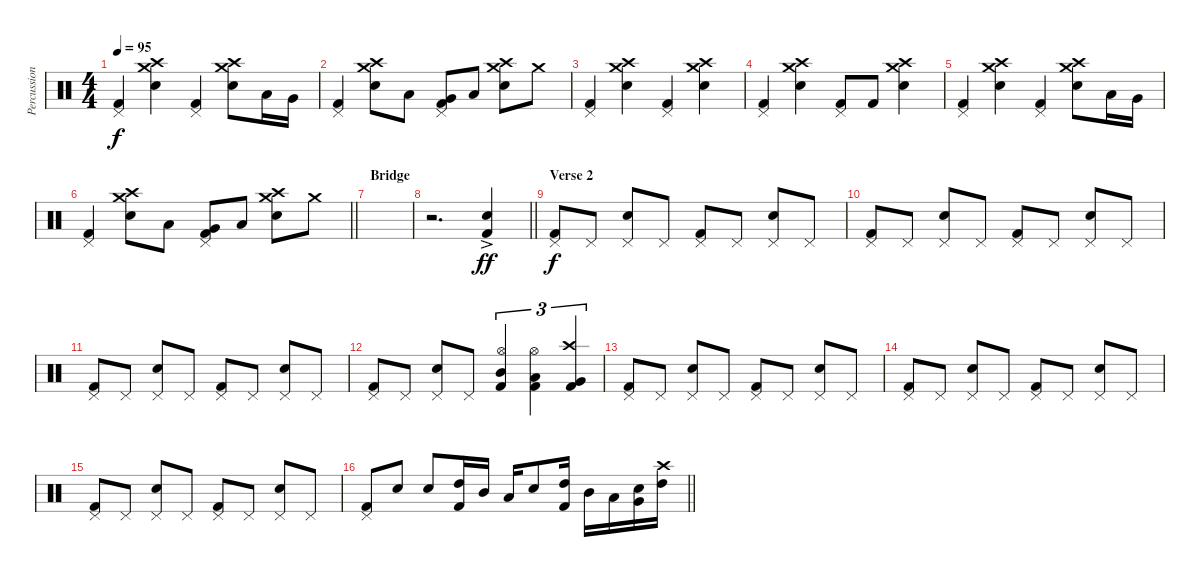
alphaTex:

\track ("Percussion" "Percussion") {instrument percussion}
\staff {score}
\articulation defaults
\ts (4 4)
\tempo 95
\clef neutral
\ks c
("Pedal Hi-Hat (hit)" "Kick (hit) 2").4{dy f} ("Crash high (hit)" "Crash medium (hit)" "Snare (hit) 2").4 ("Pedal Hi-Hat (hit)" "Kick (hit) 2").4 ("Crash high (hit)" "Crash medium (hit)" "Snare (hit) 2").8 "Low Tom (hit)".16 "Very Low Tom (hit)".16 |
("Pedal Hi-Hat (hit)" "Kick (hit) 2").4 ("Crash high (hit)" "Crash medium (hit)" "Snare (hit) 2").8 "Low Tom (hit)".8 ("Pedal Hi-Hat (hit)" "Very Low Tom (hit)" "Kick (hit) 2").8 "Low Floor Tom (hit)".8 ("Crash high (hit)" "Crash medium (hit)" "Snare (hit) 2").8 "Crash medium (hit)".8 |
("Pedal Hi-Hat (hit)" "Kick (hit) 2").4 ("Crash high (hit)" "Crash medium (hit)" "Snare (hit) 2").4 ("Pedal Hi-Hat (hit)" "Kick (hit) 2").4 ("Crash high (hit)" "Crash medium (hit)" "Snare (hit) 2").4 |
("Pedal Hi-Hat (hit)" "Kick (hit) 2").4 ("Crash high (hit)" "Crash medium (hit)" "Snare (hit) 2").4 ("Pedal Hi-Hat (hit)" "Kick (hit) 2").8 "Kick (hit) 2".8 ("Crash high (hit)" "Crash medium (hit)" "Snare (hit) 2").4 |
("Pedal Hi-Hat (hit)" "Kick (hit) 2").4 ("Crash high (hit)" "Crash medium (hit)" "Snare (hit) 2").4 ("Pedal Hi-Hat (hit)" "Kick (hit) 2").4 ("Crash high (hit)" "Crash medium (hit)" "Snare (hit) 2").8 "Low Tom (hit)".16 "Very Low Tom (hit)".16 |
\barLineRight lightlight
("Pedal Hi-Hat (hit)" "Kick (hit) 2").4 ("Crash high (hit)" "Crash medium (hit)" "Snare (hit) 2").8 "Low Tom (hit)".8 ("Pedal Hi-Hat (hit)" "Very Low Tom (hit)" "Kick (hit) 2").8 "Low Floor Tom (hit)".8 ("Crash high (hit)" "Crash medium (hit)" "Snare (hit) 2").8 "Crash medium (hit)".8 |
\section ("" "Bridge")
|
\barLineRight lightlight
r.2{d} ("Snare (hit) 2"{ac} "Kick (hit) 2"{ac}).4{dy ff} |
\section ("" "Verse 2")
("Pedal Hi-Hat (hit)" "Kick (hit) 2").8{dy f} "Pedal Hi-Hat (hit)".8 ("Pedal Hi-Hat (hit)" "Snare (hit) 2").8 "Pedal Hi-Hat (hit)".8 ("Pedal Hi-Hat (hit)" "Kick (hit) 2").8 "Pedal Hi-Hat (hit)".8 ("Pedal Hi-Hat (hit)" "Snare (hit) 2").8 "Pedal Hi-Hat (hit)".8 |
("Pedal Hi-Hat (hit)" "Kick (hit) 2").8 "Pedal Hi-Hat (hit)".8 ("Pedal Hi-Hat (hit)" "Snare (hit) 2").8 "Pedal Hi-Hat (hit)".8 ("Pedal Hi-Hat (hit)" "Kick (hit) 2").8 "Pedal Hi-Hat (hit)".8 ("Pedal Hi-Hat (hit)" "Snare (hit) 2").8 "Pedal Hi-Hat (hit)".8 |
("Pedal Hi-Hat (hit)" "Kick (hit) 2").8 "Pedal Hi-Hat (hit)".8 ("Pedal Hi-Hat (hit)" "Snare (hit) 2").8 "Pedal Hi-Hat (hit)".8 ("Pedal Hi-Hat (hit)" "Kick (hit) 2").8 "Pedal Hi-Hat (hit)".8 ("Pedal Hi-Hat (hit)" "Snare (hit) 2").8 "Pedal Hi-Hat (hit)".8 |
("Pedal Hi-Hat (hit)" "Kick (hit) 2").8 "Pedal Hi-Hat (hit)".8 ("Pedal Hi-Hat (hit)" "Snare (hit) 2").8 "Pedal Hi-Hat (hit)".8 ("Hi-Hat (open)" "Mid Tom (hit)" "Kick (hit) 2").4{tu (3 2)} ("Hi-Hat (open)" "Low Tom (hit)" "Kick (hit) 2").4{tu (3 2)} ("Crash high (hit)" "Very Low Tom (hit)" "Kick (hit) 2").4{tu (3 2)} |
("Pedal Hi-Hat (hit)" "Kick (hit) 2").8 "Pedal Hi-Hat (hit)".8 ("Pedal Hi-Hat (hit)" "Snare (hit) 2").8 "Pedal Hi-Hat (hit)".8 ("Pedal Hi-Hat (hit)" "Kick (hit) 2").8 "Pedal Hi-Hat (hit)".8 ("Pedal Hi-Hat (hit)" "Snare (hit) 2").8 "Pedal Hi-Hat (hit)".8 |
("Pedal Hi-Hat (hit)" "Kick (hit) 2").8 "Pedal Hi-Hat (hit)".8 ("Pedal Hi-Hat (hit)" "Snare (hit) 2").8 "Pedal Hi-Hat (hit)".8 ("Pedal Hi-Hat (hit)" "Kick (hit) 2").8 "Pedal Hi-Hat (hit)".8 ("Pedal Hi-Hat (hit)" "Snare (hit) 2").8 "Pedal Hi-Hat (hit)".8 |
("Pedal Hi-Hat (hit)" "Kick (hit) 2").8 "Pedal Hi-Hat (hit)".8 ("Pedal Hi-Hat (hit)" "Snare (hit) 2").8 "Pedal Hi-Hat (hit)".8 ("Pedal Hi-Hat (hit)" "Kick (hit) 2").8 "Pedal Hi-Hat (hit)".8 ("Pedal Hi-Hat (hit)" "Snare (hit) 2").8 "Pedal Hi-Hat (hit)".8 |
\barLineRight lightlight
("Pedal Hi-Hat (hit)" "Kick (hit) 2").8 "Snare (hit) 2".8 "Snare (hit) 2".8 ("High Tom (hit)" "Kick (hit) 2").16 "Mid Tom (hit)".16 "Low Tom (hit)".16 "Snare (hit) 2".8 ("High Tom (hit)" "Kick (hit) 2").16 "Mid Tom (hit)".16 "Low Tom (hit)".16 ("Very Low Tom (hit)" "Snare (hit) 2").16 ("Crash high (hit)" "High Tom (hit)").16
